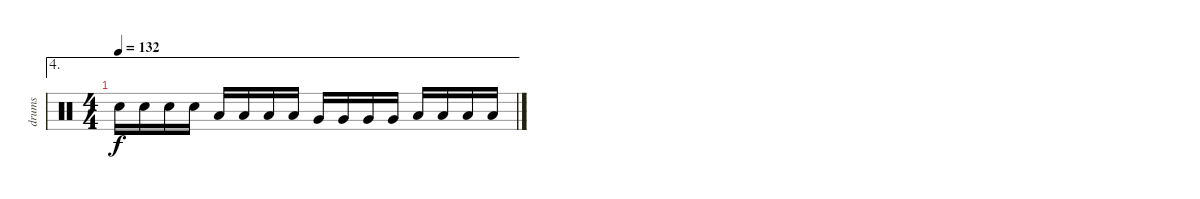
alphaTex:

\track ("drums" "drums") {instrument percussion}
\staff {score}
\articulation defaults
\ae 4
\ts (4 4)
\tempo 132
\clef neutral
\ks c "Snare (hit) 2".16{dy f} "Snare (hit) 2".16 "Snare (hit) 2".16 "Snare (hit) 2".16 "Low Floor Tom (hit)".16 "Low Floor Tom (hit)".16 "Low Floor Tom (hit)".16 "Low Floor Tom (hit)".16 "Very Low Tom (hit)".16 "Very Low Tom (hit)".16 "Very Low Tom (hit)".16 "Very Low Tom (hit)".16 "Low Tom (hit)".16 "Low Tom (hit)".16 "Low Tom (hit)".16 "Low Tom (hit)".16
